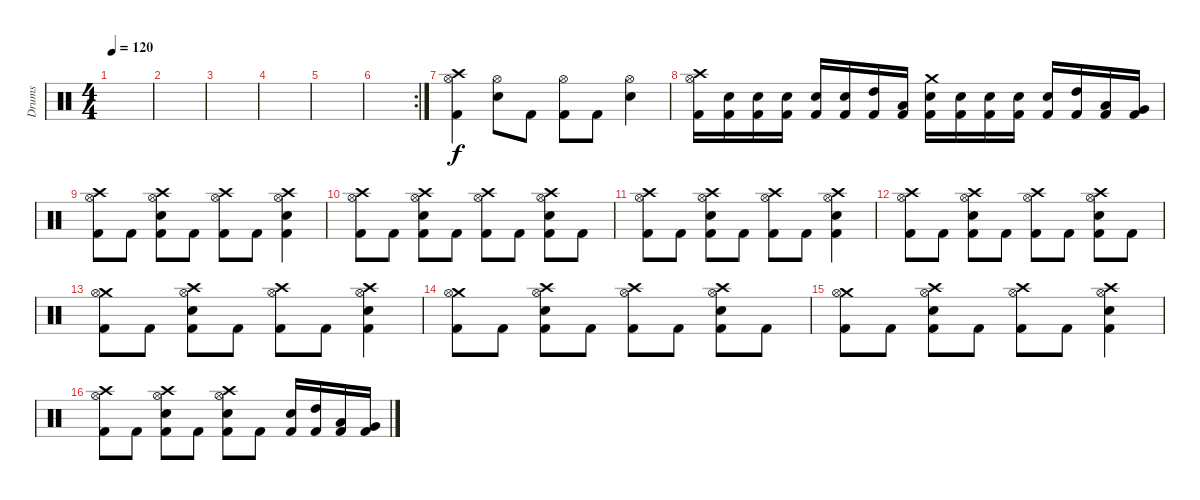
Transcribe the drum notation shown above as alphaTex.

\track ("Drums" "Drums") {instrument percussion}
\staff {score}
\articulation defaults
\ts (4 4)
\tempo 120
\clef neutral
\ks c
|
|
|
|
|
\rc 2
|
("Crash high (hit)" "Hi-Hat (open)" "Kick (hit) 2").4 ("Hi-Hat (open)" "Electric Snare (hit)").8 "Kick (hit) 2".8 ("Hi-Hat (open)" "Kick (hit) 2").8 "Kick (hit) 2".8 ("Hi-Hat (open)" "Electric Snare (hit)").4 |
("Crash high (hit)" "Hi-Hat (open)" "Kick (hit) 2").16 ("Electric Snare (hit)" "Kick (hit) 2").16 ("Electric Snare (hit)" "Kick (hit) 2").16 ("Electric Snare (hit)" "Kick (hit) 2").16 ("Electric Snare (hit)" "Kick (hit) 2").16 ("Electric Snare (hit)" "Kick (hit) 2").16 ("High Tom (hit)" "Kick (hit) 2").16 ("Low Tom (hit)" "Kick (hit) 2").16 ("Crash medium (hit)" "Electric Snare (hit)" "Kick (hit) 2").16 ("Electric Snare (hit)" "Kick (hit) 2").16 ("Electric Snare (hit)" "Kick (hit) 2").16 ("Electric Snare (hit)" "Kick (hit) 2").16 ("Electric Snare (hit)" "Kick (hit) 2").16 ("High Tom (hit)" "Kick (hit) 2").16 ("Low Tom (hit)" "Kick (hit) 2").16 ("Very Low Tom (hit)" "Kick (hit) 2").16 |
("Crash high (hit)" "Hi-Hat (open)" "Kick (hit) 2").8 "Kick (hit) 2".8 ("Crash high (hit)" "Hi-Hat (open)" "Electric Snare (hit)" "Kick (hit) 2").8 "Kick (hit) 2".8 ("Crash high (hit)" "Hi-Hat (open)" "Kick (hit) 2").8 "Kick (hit) 2".8 ("Crash high (hit)" "Hi-Hat (open)" "Electric Snare (hit)" "Kick (hit) 2").4 |
("Crash high (hit)" "Hi-Hat (open)" "Kick (hit) 2").8 "Kick (hit) 2".8 ("Crash high (hit)" "Hi-Hat (open)" "Electric Snare (hit)" "Kick (hit) 2").8 "Kick (hit) 2".8 ("Crash high (hit)" "Hi-Hat (open)" "Kick (hit) 2").8 "Kick (hit) 2".8 ("Crash high (hit)" "Hi-Hat (open)" "Electric Snare (hit)" "Kick (hit) 2").8 "Kick (hit) 2".8 |
("Crash high (hit)" "Hi-Hat (open)" "Kick (hit) 2").8 "Kick (hit) 2".8 ("Crash high (hit)" "Hi-Hat (open)" "Electric Snare (hit)" "Kick (hit) 2").8 "Kick (hit) 2".8 ("Crash high (hit)" "Hi-Hat (open)" "Kick (hit) 2").8 "Kick (hit) 2".8 ("Crash high (hit)" "Hi-Hat (open)" "Electric Snare (hit)" "Kick (hit) 2").4 |
("Crash high (hit)" "Hi-Hat (open)" "Kick (hit) 2").8 "Kick (hit) 2".8 ("Crash high (hit)" "Hi-Hat (open)" "Electric Snare (hit)" "Kick (hit) 2").8 "Kick (hit) 2".8 ("Crash high (hit)" "Hi-Hat (open)" "Kick (hit) 2").8 "Kick (hit) 2".8 ("Crash high (hit)" "Hi-Hat (open)" "Electric Snare (hit)" "Kick (hit) 2").8 "Kick (hit) 2".8 |
("Crash medium (hit)" "Hi-Hat (open)" "Kick (hit) 2").8 "Kick (hit) 2".8 ("Crash high (hit)" "Hi-Hat (open)" "Electric Snare (hit)" "Kick (hit) 2").8 "Kick (hit) 2".8 ("Crash high (hit)" "Hi-Hat (open)" "Kick (hit) 2").8 "Kick (hit) 2".8 ("Crash high (hit)" "Hi-Hat (open)" "Electric Snare (hit)" "Kick (hit) 2").4 |
("Crash medium (hit)" "Hi-Hat (open)" "Kick (hit) 2").8 "Kick (hit) 2".8 ("Crash high (hit)" "Hi-Hat (open)" "Electric Snare (hit)" "Kick (hit) 2").8 "Kick (hit) 2".8 ("Crash high (hit)" "Hi-Hat (open)" "Kick (hit) 2").8 "Kick (hit) 2".8 ("Crash high (hit)" "Hi-Hat (open)" "Electric Snare (hit)" "Kick (hit) 2").8 "Kick (hit) 2".8 |
("Crash medium (hit)" "Hi-Hat (open)" "Kick (hit) 2").8 "Kick (hit) 2".8 ("Crash high (hit)" "Hi-Hat (open)" "Electric Snare (hit)" "Kick (hit) 2").8 "Kick (hit) 2".8 ("Crash high (hit)" "Hi-Hat (open)" "Kick (hit) 2").8 "Kick (hit) 2".8 ("Crash high (hit)" "Hi-Hat (open)" "Electric Snare (hit)" "Kick (hit) 2").4 |
("Crash high (hit)" "Hi-Hat (open)" "Kick (hit) 2").8 "Kick (hit) 2".8 ("Crash high (hit)" "Hi-Hat (open)" "Electric Snare (hit)" "Kick (hit) 2").8 "Kick (hit) 2".8 ("Crash high (hit)" "Hi-Hat (open)" "Electric Snare (hit)" "Kick (hit) 2").8 "Kick (hit) 2".8 ("Electric Snare (hit)" "Kick (hit) 2").16 ("High Tom (hit)" "Kick (hit) 2").16 ("Low Tom (hit)" "Kick (hit) 2").16 ("Very Low Tom (hit)" "Kick (hit) 2").16
